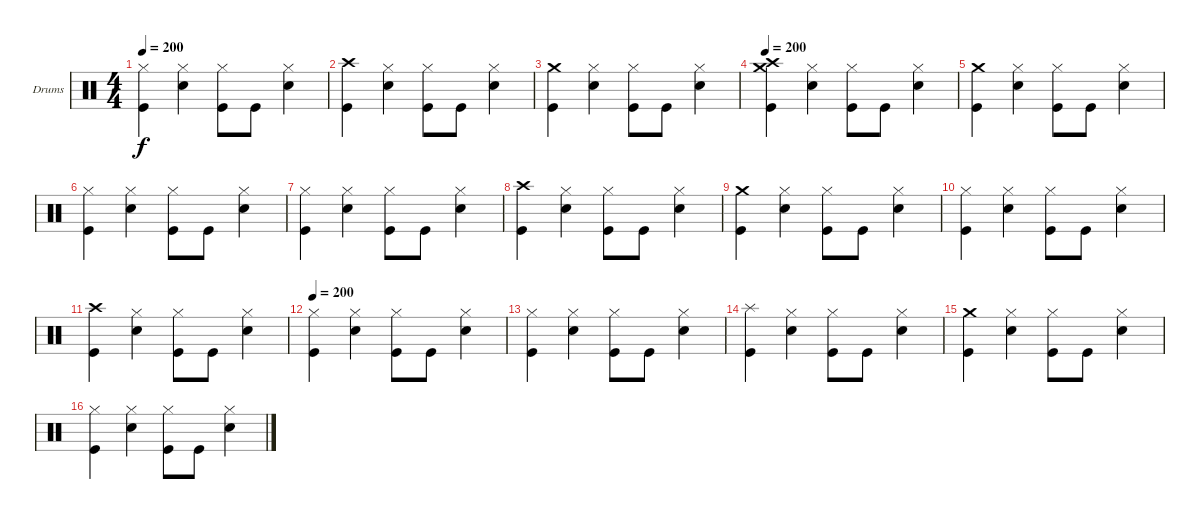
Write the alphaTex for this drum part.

\bracketExtendMode groupsimilarinstruments
\firstSystemTrackNameOrientation horizontal
\otherSystemsTrackNameOrientation horizontal
\track ("Drumkit" "Drums") {instrument percussion}
\staff {score}
\articulation defaults
\ts (4 4)
\tempo 200
\clef neutral
\ks c
("Hi-Hat (closed)" "Kick (hit)").4{dy f} ("Hi-Hat (closed)" "Snare (hit) 2").4 ("Hi-Hat (closed)" "Kick (hit)").8 "Kick (hit)".8 ("Hi-Hat (closed)" "Snare (hit) 2").4 |
("Crash high (hit)" "Kick (hit)").4 ("Hi-Hat (closed)" "Snare (hit) 2").4 ("Hi-Hat (closed)" "Kick (hit)").8 "Kick (hit)".8 ("Hi-Hat (closed)" "Snare (hit) 2").4 |
("Crash medium (hit)" "Kick (hit)").4 ("Hi-Hat (closed)" "Snare (hit) 2").4 ("Hi-Hat (closed)" "Kick (hit)").8 "Kick (hit)".8 ("Hi-Hat (closed)" "Snare (hit) 2").4 |
\tempo 200
("Crash high (hit)" "Crash medium (hit)" "Kick (hit)").4 ("Hi-Hat (closed)" "Snare (hit) 2").4 ("Hi-Hat (closed)" "Kick (hit)").8 "Kick (hit)".8 ("Hi-Hat (closed)" "Snare (hit) 2").4 |
("Crash medium (hit)" "Kick (hit)").4 ("Hi-Hat (closed)" "Snare (hit) 2").4 ("Hi-Hat (closed)" "Kick (hit)").8 "Kick (hit)".8 ("Hi-Hat (closed)" "Snare (hit) 2").4 |
("Hi-Hat (closed)" "Kick (hit)").4 ("Hi-Hat (closed)" "Snare (hit) 2").4 ("Hi-Hat (closed)" "Kick (hit)").8 "Kick (hit)".8 ("Hi-Hat (closed)" "Snare (hit) 2").4 |
("Hi-Hat (closed)" "Kick (hit)").4 ("Hi-Hat (closed)" "Snare (hit) 2").4 ("Hi-Hat (closed)" "Kick (hit)").8 "Kick (hit)".8 ("Hi-Hat (closed)" "Snare (hit) 2").4 |
("Crash high (hit)" "Kick (hit)").4 ("Hi-Hat (closed)" "Snare (hit) 2").4 ("Hi-Hat (closed)" "Kick (hit)").8 "Kick (hit)".8 ("Hi-Hat (closed)" "Snare (hit) 2").4 |
("Crash medium (hit)" "Kick (hit)").4 ("Hi-Hat (closed)" "Snare (hit) 2").4 ("Hi-Hat (closed)" "Kick (hit)").8 "Kick (hit)".8 ("Hi-Hat (closed)" "Snare (hit) 2").4 |
("Hi-Hat (closed)" "Kick (hit)").4 ("Hi-Hat (closed)" "Snare (hit) 2").4 ("Hi-Hat (closed)" "Kick (hit)").8 "Kick (hit)".8 ("Hi-Hat (closed)" "Snare (hit) 2").4 |
("Crash high (hit)" "Kick (hit)").4 ("Hi-Hat (closed)" "Snare (hit) 2").4 ("Hi-Hat (closed)" "Kick (hit)").8 "Kick (hit)".8 ("Hi-Hat (closed)" "Snare (hit) 2").4 |
\tempo 200
("Hi-Hat (closed)" "Kick (hit)").4 ("Hi-Hat (closed)" "Snare (hit) 2").4 ("Hi-Hat (closed)" "Kick (hit)").8 "Kick (hit)".8 ("Hi-Hat (closed)" "Snare (hit) 2").4 |
("Hi-Hat (closed)" "Kick (hit)").4 ("Hi-Hat (closed)" "Snare (hit) 2").4 ("Hi-Hat (closed)" "Kick (hit)").8 "Kick (hit)".8 ("Hi-Hat (closed)" "Snare (hit) 2").4 |
("Splash (hit)" "Kick (hit)").4 ("Hi-Hat (closed)" "Snare (hit) 2").4 ("Hi-Hat (closed)" "Kick (hit)").8 "Kick (hit)".8 ("Hi-Hat (closed)" "Snare (hit) 2").4 |
("Crash medium (hit)" "Kick (hit)").4 ("Hi-Hat (closed)" "Snare (hit) 2").4 ("Hi-Hat (closed)" "Kick (hit)").8 "Kick (hit)".8 ("Hi-Hat (closed)" "Snare (hit) 2").4 |
("Hi-Hat (closed)" "Kick (hit)").4 ("Hi-Hat (closed)" "Snare (hit) 2").4 ("Hi-Hat (closed)" "Kick (hit)").8 "Kick (hit)".8 ("Hi-Hat (closed)" "Snare (hit) 2").4
